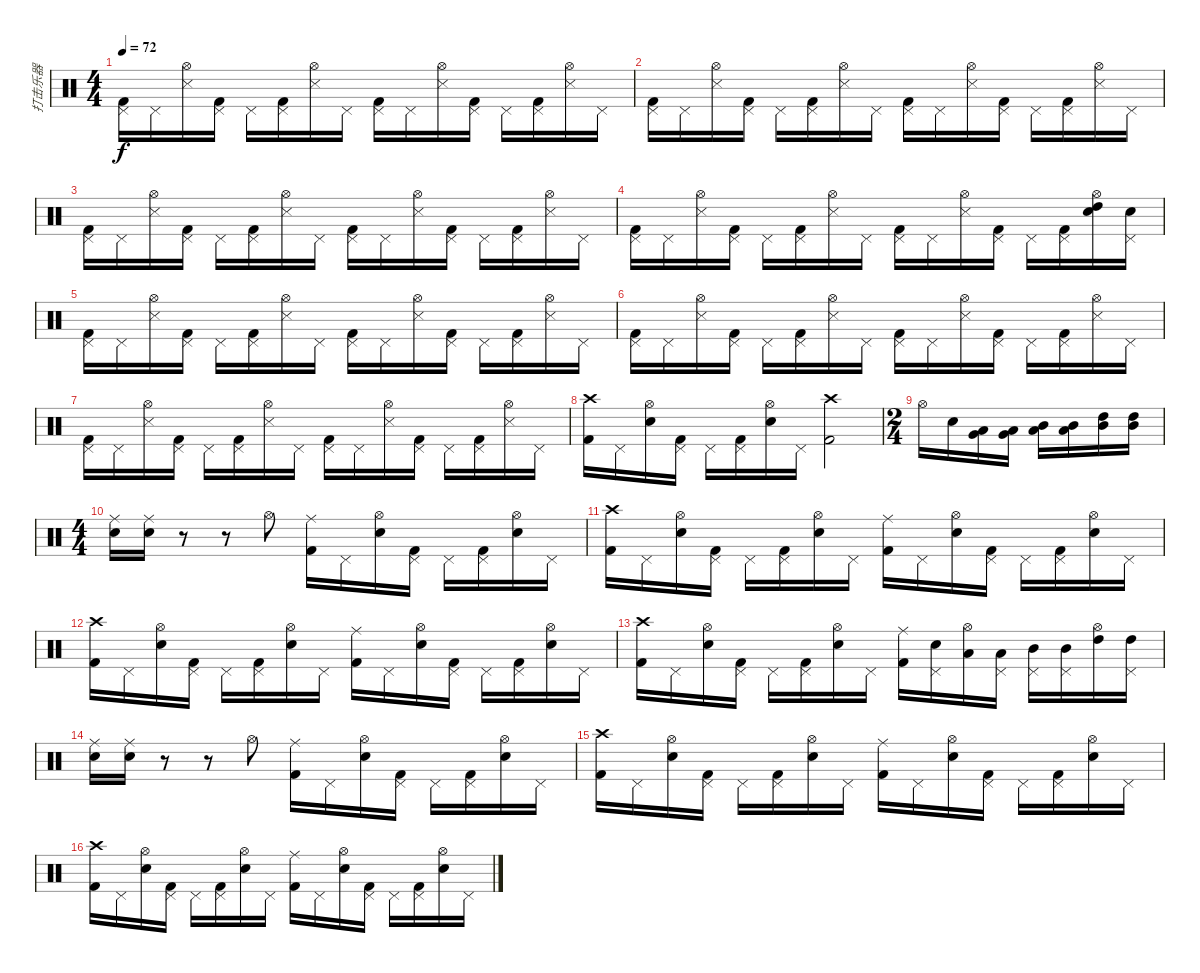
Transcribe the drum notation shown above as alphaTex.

\track ("打击乐器" "打击乐器") {instrument percussion}
\staff {score}
\articulation defaults
\ts (4 4)
\tempo 72
\clef neutral
\ks c
("Pedal Hi-Hat (hit)" "Kick (hit) 2").16{dy f} "Pedal Hi-Hat (hit)".16 ("Hi-Hat (open)" "Snare (side stick) 3").16 ("Pedal Hi-Hat (hit)" "Kick (hit) 2").16 "Pedal Hi-Hat (hit)".16 ("Pedal Hi-Hat (hit)" "Kick (hit) 2").16 ("Hi-Hat (open)" "Snare (side stick) 3").16 "Pedal Hi-Hat (hit)".16 ("Pedal Hi-Hat (hit)" "Kick (hit) 2").16 "Pedal Hi-Hat (hit)".16 ("Hi-Hat (open)" "Snare (side stick) 3").16 ("Pedal Hi-Hat (hit)" "Kick (hit) 2").16 "Pedal Hi-Hat (hit)".16 ("Pedal Hi-Hat (hit)" "Kick (hit) 2").16 ("Hi-Hat (open)" "Snare (side stick) 3").16 "Pedal Hi-Hat (hit)".16 |
("Pedal Hi-Hat (hit)" "Kick (hit) 2").16 "Pedal Hi-Hat (hit)".16 ("Hi-Hat (open)" "Snare (side stick) 3").16 ("Pedal Hi-Hat (hit)" "Kick (hit) 2").16 "Pedal Hi-Hat (hit)".16 ("Pedal Hi-Hat (hit)" "Kick (hit) 2").16 ("Hi-Hat (open)" "Snare (side stick) 3").16 "Pedal Hi-Hat (hit)".16 ("Pedal Hi-Hat (hit)" "Kick (hit) 2").16 "Pedal Hi-Hat (hit)".16 ("Hi-Hat (open)" "Snare (side stick) 3").16 ("Pedal Hi-Hat (hit)" "Kick (hit) 2").16 "Pedal Hi-Hat (hit)".16 ("Pedal Hi-Hat (hit)" "Kick (hit) 2").16 ("Hi-Hat (open)" "Snare (side stick) 3").16 "Pedal Hi-Hat (hit)".16 |
("Pedal Hi-Hat (hit)" "Kick (hit) 2").16 "Pedal Hi-Hat (hit)".16 ("Hi-Hat (open)" "Snare (side stick) 3").16 ("Pedal Hi-Hat (hit)" "Kick (hit) 2").16 "Pedal Hi-Hat (hit)".16 ("Pedal Hi-Hat (hit)" "Kick (hit) 2").16 ("Hi-Hat (open)" "Snare (side stick) 3").16 "Pedal Hi-Hat (hit)".16 ("Pedal Hi-Hat (hit)" "Kick (hit) 2").16 "Pedal Hi-Hat (hit)".16 ("Hi-Hat (open)" "Snare (side stick) 3").16 ("Pedal Hi-Hat (hit)" "Kick (hit) 2").16 "Pedal Hi-Hat (hit)".16 ("Pedal Hi-Hat (hit)" "Kick (hit) 2").16 ("Hi-Hat (open)" "Snare (side stick) 3").16 "Pedal Hi-Hat (hit)".16 |
("Pedal Hi-Hat (hit)" "Kick (hit) 2").16 "Pedal Hi-Hat (hit)".16 ("Hi-Hat (open)" "Snare (side stick) 3").16 ("Pedal Hi-Hat (hit)" "Kick (hit) 2").16 "Pedal Hi-Hat (hit)".16 ("Pedal Hi-Hat (hit)" "Kick (hit) 2").16 ("Hi-Hat (open)" "Snare (side stick) 3").16 "Pedal Hi-Hat (hit)".16 ("Pedal Hi-Hat (hit)" "Kick (hit) 2").16 "Pedal Hi-Hat (hit)".16 ("Hi-Hat (open)" "Snare (side stick) 3").16 ("Pedal Hi-Hat (hit)" "Kick (hit) 2").16 "Pedal Hi-Hat (hit)".16 ("Pedal Hi-Hat (hit)" "Kick (hit) 2").16 ("Hi-Hat (open)" "High Tom (hit)" "Electric Snare (hit)").16 ("Pedal Hi-Hat (hit)" "Electric Snare (hit)").16 |
("Pedal Hi-Hat (hit)" "Kick (hit) 2").16 "Pedal Hi-Hat (hit)".16 ("Hi-Hat (open)" "Snare (side stick) 3").16 ("Pedal Hi-Hat (hit)" "Kick (hit) 2").16 "Pedal Hi-Hat (hit)".16 ("Pedal Hi-Hat (hit)" "Kick (hit) 2").16 ("Hi-Hat (open)" "Snare (side stick) 3").16 "Pedal Hi-Hat (hit)".16 ("Pedal Hi-Hat (hit)" "Kick (hit) 2").16 "Pedal Hi-Hat (hit)".16 ("Hi-Hat (open)" "Snare (side stick) 3").16 ("Pedal Hi-Hat (hit)" "Kick (hit) 2").16 "Pedal Hi-Hat (hit)".16 ("Pedal Hi-Hat (hit)" "Kick (hit) 2").16 ("Hi-Hat (open)" "Snare (side stick) 3").16 "Pedal Hi-Hat (hit)".16 |
("Pedal Hi-Hat (hit)" "Kick (hit) 2").16 "Pedal Hi-Hat (hit)".16 ("Hi-Hat (open)" "Snare (side stick) 3").16 ("Pedal Hi-Hat (hit)" "Kick (hit) 2").16 "Pedal Hi-Hat (hit)".16 ("Pedal Hi-Hat (hit)" "Kick (hit) 2").16 ("Hi-Hat (open)" "Snare (side stick) 3").16 "Pedal Hi-Hat (hit)".16 ("Pedal Hi-Hat (hit)" "Kick (hit) 2").16 "Pedal Hi-Hat (hit)".16 ("Hi-Hat (open)" "Snare (side stick) 3").16 ("Pedal Hi-Hat (hit)" "Kick (hit) 2").16 "Pedal Hi-Hat (hit)".16 ("Pedal Hi-Hat (hit)" "Kick (hit) 2").16 ("Hi-Hat (open)" "Snare (side stick) 3").16 "Pedal Hi-Hat (hit)".16 |
("Pedal Hi-Hat (hit)" "Kick (hit) 2").16 "Pedal Hi-Hat (hit)".16 ("Hi-Hat (open)" "Snare (side stick) 3").16 ("Pedal Hi-Hat (hit)" "Kick (hit) 2").16 "Pedal Hi-Hat (hit)".16 ("Pedal Hi-Hat (hit)" "Kick (hit) 2").16 ("Hi-Hat (open)" "Snare (side stick) 3").16 "Pedal Hi-Hat (hit)".16 ("Pedal Hi-Hat (hit)" "Kick (hit) 2").16 "Pedal Hi-Hat (hit)".16 ("Hi-Hat (open)" "Snare (side stick) 3").16 ("Pedal Hi-Hat (hit)" "Kick (hit) 2").16 "Pedal Hi-Hat (hit)".16 ("Pedal Hi-Hat (hit)" "Kick (hit) 2").16 ("Hi-Hat (open)" "Snare (side stick) 3").16 "Pedal Hi-Hat (hit)".16 |
("Crash high (hit)" "Kick (hit) 2").16 "Pedal Hi-Hat (hit)".16 ("Hi-Hat (open)" "Electric Snare (hit)").16 ("Pedal Hi-Hat (hit)" "Kick (hit) 2").16 "Pedal Hi-Hat (hit)".16 ("Pedal Hi-Hat (hit)" "Kick (hit) 2").16 ("Hi-Hat (open)" "Electric Snare (hit)").16 "Pedal Hi-Hat (hit)".16 ("Crash high (hit)" "Kick (hit) 2").2 |
\ts (2 4)
"Hi-Hat (open)".16 "Snare (hit) 2".16 ("Very Low Tom (hit)" "Low Tom (hit)").16 ("Very Low Tom (hit)" "Low Tom (hit)").16 ("Low Tom (hit)" "Mid Tom (hit)").16 ("Low Tom (hit)" "Mid Tom (hit)").16 ("Mid Tom (hit)" "High Tom (hit)").16 ("Mid Tom (hit)" "High Tom (hit)").16 |
\ts (4 4)
("Ride (middle)" "Electric Snare (hit)").16 ("Ride (middle)" "Electric Snare (hit)").16 r.8 r.8 "Hi-Hat (open)".8 ("Ride (middle)" "Kick (hit) 2").16 "Pedal Hi-Hat (hit)".16 ("Hi-Hat (open)" "Electric Snare (hit)").16 ("Pedal Hi-Hat (hit)" "Kick (hit) 2").16 "Pedal Hi-Hat (hit)".16 ("Pedal Hi-Hat (hit)" "Kick (hit) 2").16 ("Hi-Hat (open)" "Electric Snare (hit)").16 "Pedal Hi-Hat (hit)".16 |
("Crash high (hit)" "Kick (hit) 2").16 "Pedal Hi-Hat (hit)".16 ("Hi-Hat (open)" "Electric Snare (hit)").16 ("Pedal Hi-Hat (hit)" "Kick (hit) 2").16 "Pedal Hi-Hat (hit)".16 ("Pedal Hi-Hat (hit)" "Kick (hit) 2").16 ("Hi-Hat (open)" "Electric Snare (hit)").16 "Pedal Hi-Hat (hit)".16 ("Ride (middle)" "Kick (hit) 2").16 "Pedal Hi-Hat (hit)".16 ("Hi-Hat (open)" "Electric Snare (hit)").16 ("Pedal Hi-Hat (hit)" "Kick (hit) 2").16 "Pedal Hi-Hat (hit)".16 ("Pedal Hi-Hat (hit)" "Kick (hit) 2").16 ("Hi-Hat (open)" "Electric Snare (hit)").16 "Pedal Hi-Hat (hit)".16 |
("Crash high (hit)" "Kick (hit) 2").16 "Pedal Hi-Hat (hit)".16 ("Hi-Hat (open)" "Electric Snare (hit)").16 ("Pedal Hi-Hat (hit)" "Kick (hit) 2").16 "Pedal Hi-Hat (hit)".16 ("Pedal Hi-Hat (hit)" "Kick (hit) 2").16 ("Hi-Hat (open)" "Electric Snare (hit)").16 "Pedal Hi-Hat (hit)".16 ("Ride (middle)" "Kick (hit) 2").16 "Pedal Hi-Hat (hit)".16 ("Hi-Hat (open)" "Electric Snare (hit)").16 ("Pedal Hi-Hat (hit)" "Kick (hit) 2").16 "Pedal Hi-Hat (hit)".16 ("Pedal Hi-Hat (hit)" "Kick (hit) 2").16 ("Hi-Hat (open)" "Electric Snare (hit)").16 "Pedal Hi-Hat (hit)".16 |
("Crash high (hit)" "Kick (hit) 2").16 "Pedal Hi-Hat (hit)".16 ("Hi-Hat (open)" "Electric Snare (hit)").16 ("Pedal Hi-Hat (hit)" "Kick (hit) 2").16 "Pedal Hi-Hat (hit)".16 ("Pedal Hi-Hat (hit)" "Kick (hit) 2").16 ("Hi-Hat (open)" "Electric Snare (hit)").16 "Pedal Hi-Hat (hit)".16 ("Ride (middle)" "Kick (hit) 2").16 ("Pedal Hi-Hat (hit)" "Electric Snare (hit)").16 ("Hi-Hat (open)" "Low Tom (hit)").16 ("Pedal Hi-Hat (hit)" "Low Tom (hit)").16 ("Pedal Hi-Hat (hit)" "Mid Tom (hit)").16 ("Pedal Hi-Hat (hit)" "Mid Tom (hit)").16 ("Hi-Hat (open)" "High Tom (hit)").16 ("Pedal Hi-Hat (hit)" "High Tom (hit)").16 |
("Ride (middle)" "Electric Snare (hit)").16 ("Ride (middle)" "Electric Snare (hit)").16 r.8 r.8 "Hi-Hat (open)".8 ("Ride (middle)" "Kick (hit) 2").16 "Pedal Hi-Hat (hit)".16 ("Hi-Hat (open)" "Electric Snare (hit)").16 ("Pedal Hi-Hat (hit)" "Kick (hit) 2").16 "Pedal Hi-Hat (hit)".16 ("Pedal Hi-Hat (hit)" "Kick (hit) 2").16 ("Hi-Hat (open)" "Electric Snare (hit)").16 "Pedal Hi-Hat (hit)".16 |
("Crash high (hit)" "Kick (hit) 2").16 "Pedal Hi-Hat (hit)".16 ("Hi-Hat (open)" "Electric Snare (hit)").16 ("Pedal Hi-Hat (hit)" "Kick (hit) 2").16 "Pedal Hi-Hat (hit)".16 ("Pedal Hi-Hat (hit)" "Kick (hit) 2").16 ("Hi-Hat (open)" "Electric Snare (hit)").16 "Pedal Hi-Hat (hit)".16 ("Ride (middle)" "Kick (hit) 2").16 "Pedal Hi-Hat (hit)".16 ("Hi-Hat (open)" "Electric Snare (hit)").16 ("Pedal Hi-Hat (hit)" "Kick (hit) 2").16 "Pedal Hi-Hat (hit)".16 ("Pedal Hi-Hat (hit)" "Kick (hit) 2").16 ("Hi-Hat (open)" "Electric Snare (hit)").16 "Pedal Hi-Hat (hit)".16 |
("Crash high (hit)" "Kick (hit) 2").16 "Pedal Hi-Hat (hit)".16 ("Hi-Hat (open)" "Electric Snare (hit)").16 ("Pedal Hi-Hat (hit)" "Kick (hit) 2").16 "Pedal Hi-Hat (hit)".16 ("Pedal Hi-Hat (hit)" "Kick (hit) 2").16 ("Hi-Hat (open)" "Electric Snare (hit)").16 "Pedal Hi-Hat (hit)".16 ("Ride (middle)" "Kick (hit) 2").16 "Pedal Hi-Hat (hit)".16 ("Hi-Hat (open)" "Electric Snare (hit)").16 ("Pedal Hi-Hat (hit)" "Kick (hit) 2").16 "Pedal Hi-Hat (hit)".16 ("Pedal Hi-Hat (hit)" "Kick (hit) 2").16 ("Hi-Hat (open)" "Electric Snare (hit)").16 "Pedal Hi-Hat (hit)".16
